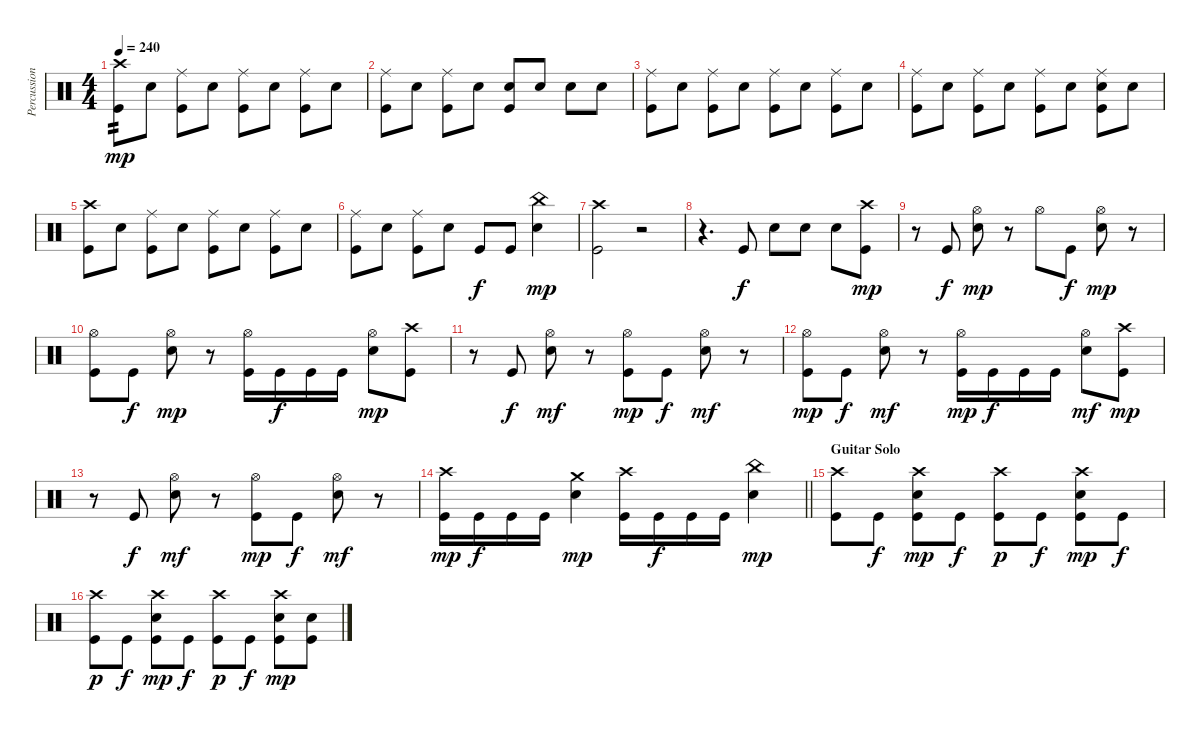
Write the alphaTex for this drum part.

\track ("Percussion" "Percussion") {instrument percussion}
\staff {score}
\articulation defaults
\ts (4 4)
\tempo 240
\clef neutral
\ks c
("Crash high (hit)" "Kick (hit)").8{tp 2 dy mp} "Electric Snare (hit)".8 ("Ride (middle)" "Kick (hit)").8 "Electric Snare (hit)".8 ("Ride (middle)" "Kick (hit)").8 "Electric Snare (hit)".8 ("Ride (middle)" "Kick (hit)").8 "Electric Snare (hit)".8 |
("Ride (middle)" "Kick (hit)").8 "Electric Snare (hit)".8 ("Ride (middle)" "Kick (hit)").8 "Electric Snare (hit)".8 ("Electric Snare (hit)" "Kick (hit)").8 "Electric Snare (hit)".8 "Electric Snare (hit)".8 "Electric Snare (hit)".8 |
("Ride (middle)" "Kick (hit)").8 "Electric Snare (hit)".8 ("Ride (middle)" "Kick (hit)").8 "Electric Snare (hit)".8 ("Ride (middle)" "Kick (hit)").8 "Electric Snare (hit)".8 ("Ride (middle)" "Kick (hit)").8 "Electric Snare (hit)".8 |
("Ride (middle)" "Kick (hit)").8 "Electric Snare (hit)".8 ("Ride (middle)" "Kick (hit)").8 "Electric Snare (hit)".8 ("Ride (middle)" "Kick (hit)").8 "Electric Snare (hit)".8 ("Ride (middle)" "Electric Snare (hit)" "Kick (hit)").8 "Electric Snare (hit)".8 |
("Crash high (hit)" "Kick (hit)").8 "Electric Snare (hit)".8 ("Ride (middle)" "Kick (hit)").8 "Electric Snare (hit)".8 ("Ride (middle)" "Kick (hit)").8 "Electric Snare (hit)".8 ("Ride (middle)" "Kick (hit)").8 "Electric Snare (hit)".8 |
("Ride (middle)" "Kick (hit)").8 "Electric Snare (hit)".8 ("Ride (middle)" "Kick (hit)").8 "Electric Snare (hit)".8 "Kick (hit)".8{dy f} "Kick (hit)".8 ("China (hit)" "Electric Snare (hit)").4{dy mp} |
("Crash high (hit)" "Kick (hit)").2 r.2 |
r.4{d} "Kick (hit)".8{dy f} "Electric Snare (hit)".8 "Electric Snare (hit)".8 "Electric Snare (hit)".8 ("Crash high (hit)" "Kick (hit)").8{dy mp} |
r.8 "Kick (hit)".8{dy f} ("Hi-Hat (open)" "Electric Snare (hit)").8{dy mp} r.8 "Hi-Hat (open)".8 "Kick (hit)".8{dy f} ("Hi-Hat (open)" "Electric Snare (hit)").8{dy mp} r.8 |
("Hi-Hat (open)" "Kick (hit)").8 "Kick (hit)".8{dy f} ("Hi-Hat (open)" "Electric Snare (hit)").8{dy mp} r.8 ("Hi-Hat (open)" "Kick (hit)").16 "Kick (hit)".16{dy f} "Kick (hit)".16 "Kick (hit)".16 ("Hi-Hat (open)" "Electric Snare (hit)").8{dy mp} ("Crash high (hit)" "Kick (hit)").8 |
r.8 "Kick (hit)".8{dy f} ("Hi-Hat (open)" "Electric Snare (hit)").8{dy mf} r.8 ("Hi-Hat (open)" "Kick (hit)").8{dy mp} "Kick (hit)".8{dy f} ("Hi-Hat (open)" "Electric Snare (hit)").8{dy mf} r.8 |
("Hi-Hat (open)" "Kick (hit)").8{dy mp} "Kick (hit)".8{dy f} ("Hi-Hat (open)" "Electric Snare (hit)").8{dy mf} r.8 ("Hi-Hat (open)" "Kick (hit)").16{dy mp} "Kick (hit)".16{dy f} "Kick (hit)".16 "Kick (hit)".16 ("Hi-Hat (open)" "Electric Snare (hit)").8{dy mf} ("Crash high (hit)" "Kick (hit)").8{dy mp} |
r.8 "Kick (hit)".8{dy f} ("Hi-Hat (open)" "Electric Snare (hit)").8{dy mf} r.8 ("Hi-Hat (open)" "Kick (hit)").8{dy mp} "Kick (hit)".8{dy f} ("Hi-Hat (open)" "Electric Snare (hit)").8{dy mf} r.8 |
\barLineRight lightlight
("Crash high (hit)" "Kick (hit)").16{dy mp} "Kick (hit)".16{dy f} "Kick (hit)".16 "Kick (hit)".16 ("Crash medium (hit)" "Electric Snare (hit)").4{dy mp} ("Crash high (hit)" "Kick (hit)").16 "Kick (hit)".16{dy f} "Kick (hit)".16 "Kick (hit)".16 ("China (hit)" "Electric Snare (hit)").4{dy mp} |
\section ("" "Guitar Solo")
("Crash high (hit)" "Kick (hit)").8 "Kick (hit)".8{dy f} ("Crash high (hit)" "Electric Snare (hit)" "Kick (hit)").8{dy mp} "Kick (hit)".8{dy f} ("Crash high (hit)" "Kick (hit)").8{dy p} "Kick (hit)".8{dy f} ("Crash high (hit)" "Electric Snare (hit)" "Kick (hit)").8{dy mp} "Kick (hit)".8{dy f} |
("Crash high (hit)" "Kick (hit)").8{dy p} "Kick (hit)".8{dy f} ("Crash high (hit)" "Electric Snare (hit)" "Kick (hit)").8{dy mp} "Kick (hit)".8{dy f} ("Crash high (hit)" "Kick (hit)").8{dy p} "Kick (hit)".8{dy f} ("Crash high (hit)" "Electric Snare (hit)" "Kick (hit)").8{dy mp} ("Electric Snare (hit)" "Kick (hit)").8
